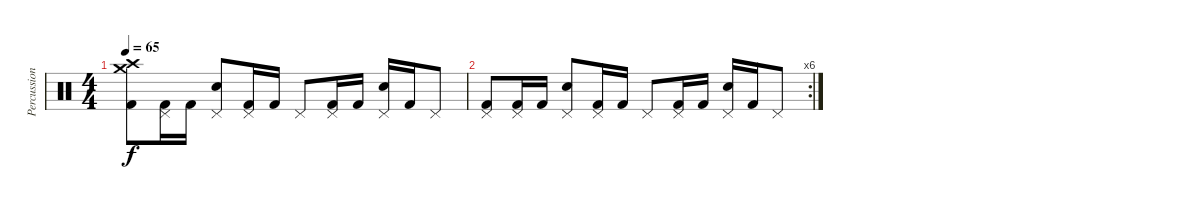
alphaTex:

\track ("Percussions" "Percussion") {instrument percussion}
\staff {score}
\articulation defaults
\ts (4 4)
\tempo 65
\clef neutral
\ks c
("Crash high (hit)" "Crash medium (hit)" "Kick (hit) 2").8{dy f} ("Pedal Hi-Hat (hit)" "Kick (hit) 2").16 "Kick (hit) 2".16 ("Pedal Hi-Hat (hit)" "Electric Snare (hit)").8 ("Pedal Hi-Hat (hit)" "Kick (hit) 2").16 "Kick (hit) 2".16 "Pedal Hi-Hat (hit)".8 ("Pedal Hi-Hat (hit)" "Kick (hit) 2").16 "Kick (hit) 2".16 ("Pedal Hi-Hat (hit)" "Electric Snare (hit)").16 "Kick (hit) 2".16 "Pedal Hi-Hat (hit)".8 |
\rc 6
("Pedal Hi-Hat (hit)" "Kick (hit) 2").8 ("Pedal Hi-Hat (hit)" "Kick (hit) 2").16 "Kick (hit) 2".16 ("Pedal Hi-Hat (hit)" "Electric Snare (hit)").8 ("Pedal Hi-Hat (hit)" "Kick (hit) 2").16 "Kick (hit) 2".16 "Pedal Hi-Hat (hit)".8 ("Pedal Hi-Hat (hit)" "Kick (hit) 2").16 "Kick (hit) 2".16 ("Pedal Hi-Hat (hit)" "Electric Snare (hit)").16 "Kick (hit) 2".16 "Pedal Hi-Hat (hit)".8
